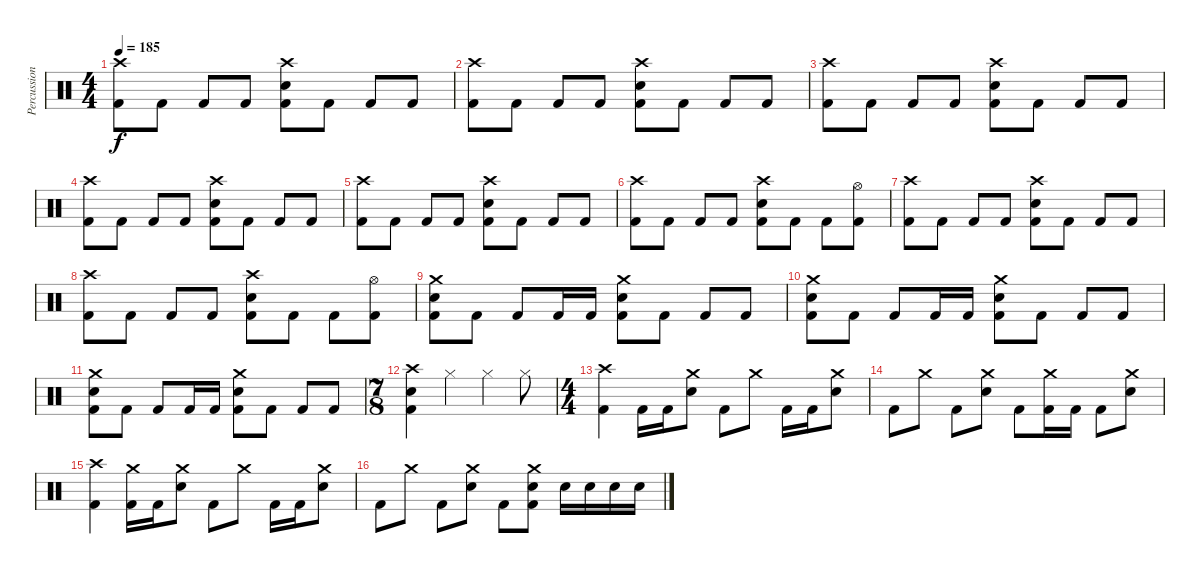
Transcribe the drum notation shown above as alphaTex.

\track ("Percussion" "Percussion") {instrument percussion}
\staff {score}
\articulation defaults
\ts (4 4)
\tempo 185
\clef neutral
\ks c
("Crash high (hit)" "Kick (hit) 2").8{dy f} "Kick (hit) 2".8 "Kick (hit) 2".8 "Kick (hit) 2".8 ("Crash high (hit)" "Electric Snare (hit)" "Kick (hit) 2").8 "Kick (hit) 2".8 "Kick (hit) 2".8 "Kick (hit) 2".8 |
("Crash high (hit)" "Kick (hit) 2").8 "Kick (hit) 2".8 "Kick (hit) 2".8 "Kick (hit) 2".8 ("Crash high (hit)" "Electric Snare (hit)" "Kick (hit) 2").8 "Kick (hit) 2".8 "Kick (hit) 2".8 "Kick (hit) 2".8 |
("Crash high (hit)" "Kick (hit) 2").8 "Kick (hit) 2".8 "Kick (hit) 2".8 "Kick (hit) 2".8 ("Crash high (hit)" "Electric Snare (hit)" "Kick (hit) 2").8 "Kick (hit) 2".8 "Kick (hit) 2".8 "Kick (hit) 2".8 |
("Crash high (hit)" "Kick (hit) 2").8 "Kick (hit) 2".8 "Kick (hit) 2".8 "Kick (hit) 2".8 ("Crash high (hit)" "Electric Snare (hit)" "Kick (hit) 2").8 "Kick (hit) 2".8 "Kick (hit) 2".8 "Kick (hit) 2".8 |
("Crash high (hit)" "Kick (hit) 2").8 "Kick (hit) 2".8 "Kick (hit) 2".8 "Kick (hit) 2".8 ("Crash high (hit)" "Electric Snare (hit)" "Kick (hit) 2").8 "Kick (hit) 2".8 "Kick (hit) 2".8 "Kick (hit) 2".8 |
("Crash high (hit)" "Kick (hit) 2").8 "Kick (hit) 2".8 "Kick (hit) 2".8 "Kick (hit) 2".8 ("Crash high (hit)" "Electric Snare (hit)" "Kick (hit) 2").8 "Kick (hit) 2".8 "Kick (hit) 2".8 ("Hi-Hat (open)" "Kick (hit) 2").8 |
("Crash high (hit)" "Kick (hit) 2").8 "Kick (hit) 2".8 "Kick (hit) 2".8 "Kick (hit) 2".8 ("Crash high (hit)" "Electric Snare (hit)" "Kick (hit) 2").8 "Kick (hit) 2".8 "Kick (hit) 2".8 "Kick (hit) 2".8 |
("Crash high (hit)" "Kick (hit) 2").8 "Kick (hit) 2".8 "Kick (hit) 2".8 "Kick (hit) 2".8 ("Crash high (hit)" "Electric Snare (hit)" "Kick (hit) 2").8 "Kick (hit) 2".8 "Kick (hit) 2".8 ("Hi-Hat (open)" "Kick (hit) 2").8 |
("Crash medium (hit)" "Electric Snare (hit)" "Kick (hit) 2").8 "Kick (hit) 2".8 "Kick (hit) 2".8 "Kick (hit) 2".16 "Kick (hit) 2".16 ("Crash medium (hit)" "Electric Snare (hit)" "Kick (hit) 2").8 "Kick (hit) 2".8 "Kick (hit) 2".8 "Kick (hit) 2".8 |
("Crash medium (hit)" "Electric Snare (hit)" "Kick (hit) 2").8 "Kick (hit) 2".8 "Kick (hit) 2".8 "Kick (hit) 2".16 "Kick (hit) 2".16 ("Crash medium (hit)" "Electric Snare (hit)" "Kick (hit) 2").8 "Kick (hit) 2".8 "Kick (hit) 2".8 "Kick (hit) 2".8 |
("Crash medium (hit)" "Electric Snare (hit)" "Kick (hit) 2").8 "Kick (hit) 2".8 "Kick (hit) 2".8 "Kick (hit) 2".16 "Kick (hit) 2".16 ("Crash medium (hit)" "Electric Snare (hit)" "Kick (hit) 2").8 "Kick (hit) 2".8 "Kick (hit) 2".8 "Kick (hit) 2".8 |
\ts (7 8)
("Crash high (hit)" "Electric Snare (hit)" "Kick (hit) 2").4 "Hi-Hat (closed)".4 "Hi-Hat (closed)".4 "Hi-Hat (closed)".8 |
\ts (4 4)
("Crash high (hit)" "Kick (hit) 2").4 "Kick (hit) 2".16 "Kick (hit) 2".16 ("Crash medium (hit)" "Electric Snare (hit)").8 "Kick (hit) 2".8 "Crash medium (hit)".8 "Kick (hit) 2".16 "Kick (hit) 2".16 ("Crash medium (hit)" "Electric Snare (hit)").8 |
"Kick (hit) 2".8 "Crash medium (hit)".8 "Kick (hit) 2".8 ("Crash medium (hit)" "Electric Snare (hit)").8 "Kick (hit) 2".8 ("Crash medium (hit)" "Kick (hit) 2").16 "Kick (hit) 2".16 "Kick (hit) 2".8 ("Crash medium (hit)" "Electric Snare (hit)").8 |
("Crash high (hit)" "Kick (hit) 2").4 ("Crash medium (hit)" "Kick (hit) 2").16 "Kick (hit) 2".16 ("Crash medium (hit)" "Electric Snare (hit)").8 "Kick (hit) 2".8 "Crash medium (hit)".8 "Kick (hit) 2".16 "Kick (hit) 2".16 ("Crash medium (hit)" "Electric Snare (hit)").8 |
"Kick (hit) 2".8 "Crash medium (hit)".8 "Kick (hit) 2".8 ("Crash medium (hit)" "Electric Snare (hit)").8 "Kick (hit) 2".8 ("Crash medium (hit)" "Electric Snare (hit)" "Kick (hit) 2").8 "Electric Snare (hit)".16 "Electric Snare (hit)".16 "Electric Snare (hit)".16 "Electric Snare (hit)".16
